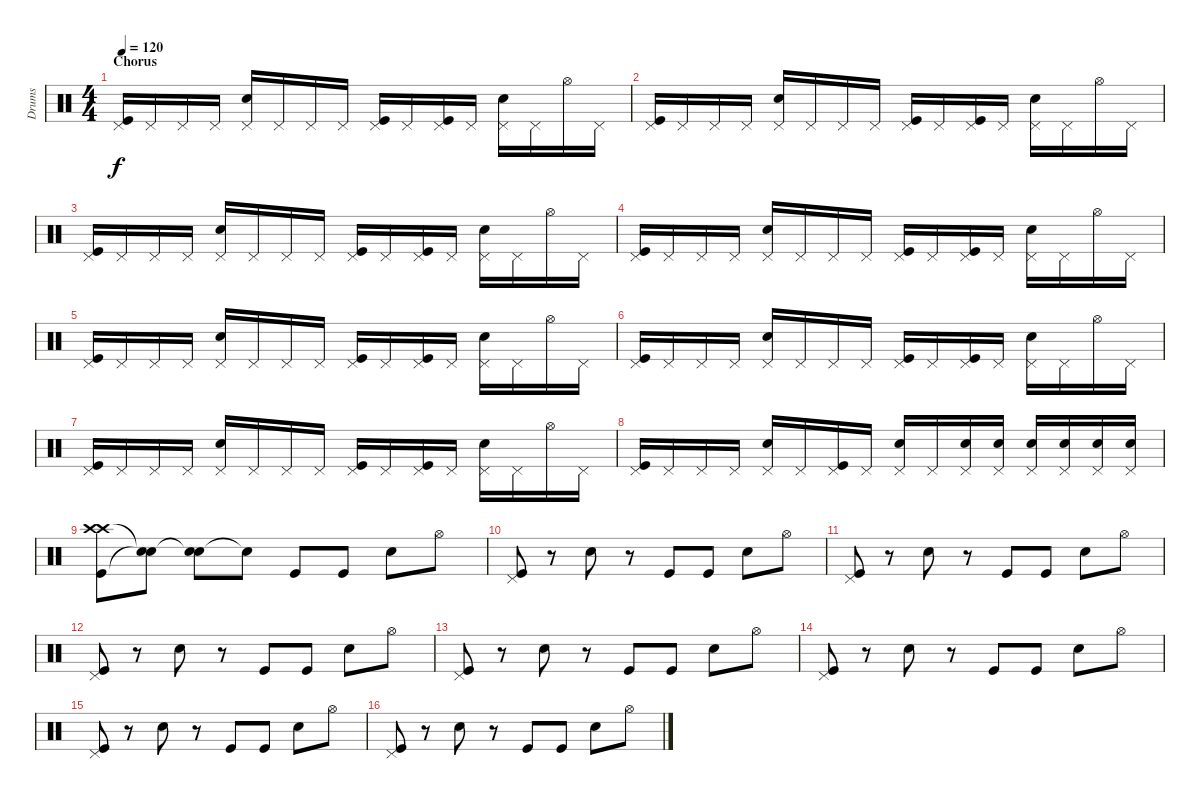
\track ("Drums" "Drums") {instrument percussion}
\staff {score}
\articulation defaults
\ts (4 4)
\section ("" "Chorus")
\tempo 120
\clef neutral
\ks c
("Kick (hit)" "Pedal Hi-Hat (hit)").16{dy f} "Pedal Hi-Hat (hit)".16 "Pedal Hi-Hat (hit)".16 "Pedal Hi-Hat (hit)".16 ("Snare (hit) 2" "Pedal Hi-Hat (hit)").16 "Pedal Hi-Hat (hit)".16 "Pedal Hi-Hat (hit)".16 "Pedal Hi-Hat (hit)".16 ("Kick (hit)" "Pedal Hi-Hat (hit)").16 "Pedal Hi-Hat (hit)".16 ("Kick (hit)" "Pedal Hi-Hat (hit)").16 "Pedal Hi-Hat (hit)".16 ("Snare (hit) 2" "Pedal Hi-Hat (hit)").16 "Pedal Hi-Hat (hit)".16 "Hi-Hat (open)".16 "Pedal Hi-Hat (hit)".16 |
("Kick (hit)" "Pedal Hi-Hat (hit)").16 "Pedal Hi-Hat (hit)".16 "Pedal Hi-Hat (hit)".16 "Pedal Hi-Hat (hit)".16 ("Snare (hit) 2" "Pedal Hi-Hat (hit)").16 "Pedal Hi-Hat (hit)".16 "Pedal Hi-Hat (hit)".16 "Pedal Hi-Hat (hit)".16 ("Kick (hit)" "Pedal Hi-Hat (hit)").16 "Pedal Hi-Hat (hit)".16 ("Kick (hit)" "Pedal Hi-Hat (hit)").16 "Pedal Hi-Hat (hit)".16 ("Snare (hit) 2" "Pedal Hi-Hat (hit)").16 "Pedal Hi-Hat (hit)".16 "Hi-Hat (open)".16 "Pedal Hi-Hat (hit)".16 |
("Kick (hit)" "Pedal Hi-Hat (hit)").16 "Pedal Hi-Hat (hit)".16 "Pedal Hi-Hat (hit)".16 "Pedal Hi-Hat (hit)".16 ("Snare (hit) 2" "Pedal Hi-Hat (hit)").16 "Pedal Hi-Hat (hit)".16 "Pedal Hi-Hat (hit)".16 "Pedal Hi-Hat (hit)".16 ("Kick (hit)" "Pedal Hi-Hat (hit)").16 "Pedal Hi-Hat (hit)".16 ("Kick (hit)" "Pedal Hi-Hat (hit)").16 "Pedal Hi-Hat (hit)".16 ("Snare (hit) 2" "Pedal Hi-Hat (hit)").16 "Pedal Hi-Hat (hit)".16 "Hi-Hat (open)".16 "Pedal Hi-Hat (hit)".16 |
("Kick (hit)" "Pedal Hi-Hat (hit)").16 "Pedal Hi-Hat (hit)".16 "Pedal Hi-Hat (hit)".16 "Pedal Hi-Hat (hit)".16 ("Snare (hit) 2" "Pedal Hi-Hat (hit)").16 "Pedal Hi-Hat (hit)".16 "Pedal Hi-Hat (hit)".16 "Pedal Hi-Hat (hit)".16 ("Kick (hit)" "Pedal Hi-Hat (hit)").16 "Pedal Hi-Hat (hit)".16 ("Kick (hit)" "Pedal Hi-Hat (hit)").16 "Pedal Hi-Hat (hit)".16 ("Snare (hit) 2" "Pedal Hi-Hat (hit)").16 "Pedal Hi-Hat (hit)".16 "Hi-Hat (open)".16 "Pedal Hi-Hat (hit)".16 |
("Kick (hit)" "Pedal Hi-Hat (hit)").16 "Pedal Hi-Hat (hit)".16 "Pedal Hi-Hat (hit)".16 "Pedal Hi-Hat (hit)".16 ("Snare (hit) 2" "Pedal Hi-Hat (hit)").16 "Pedal Hi-Hat (hit)".16 "Pedal Hi-Hat (hit)".16 "Pedal Hi-Hat (hit)".16 ("Kick (hit)" "Pedal Hi-Hat (hit)").16 "Pedal Hi-Hat (hit)".16 ("Kick (hit)" "Pedal Hi-Hat (hit)").16 "Pedal Hi-Hat (hit)".16 ("Snare (hit) 2" "Pedal Hi-Hat (hit)").16 "Pedal Hi-Hat (hit)".16 "Hi-Hat (open)".16 "Pedal Hi-Hat (hit)".16 |
("Kick (hit)" "Pedal Hi-Hat (hit)").16 "Pedal Hi-Hat (hit)".16 "Pedal Hi-Hat (hit)".16 "Pedal Hi-Hat (hit)".16 ("Snare (hit) 2" "Pedal Hi-Hat (hit)").16 "Pedal Hi-Hat (hit)".16 "Pedal Hi-Hat (hit)".16 "Pedal Hi-Hat (hit)".16 ("Kick (hit)" "Pedal Hi-Hat (hit)").16 "Pedal Hi-Hat (hit)".16 ("Kick (hit)" "Pedal Hi-Hat (hit)").16 "Pedal Hi-Hat (hit)".16 ("Snare (hit) 2" "Pedal Hi-Hat (hit)").16 "Pedal Hi-Hat (hit)".16 "Hi-Hat (open)".16 "Pedal Hi-Hat (hit)".16 |
("Kick (hit)" "Pedal Hi-Hat (hit)").16 "Pedal Hi-Hat (hit)".16 "Pedal Hi-Hat (hit)".16 "Pedal Hi-Hat (hit)".16 ("Snare (hit) 2" "Pedal Hi-Hat (hit)").16 "Pedal Hi-Hat (hit)".16 "Pedal Hi-Hat (hit)".16 "Pedal Hi-Hat (hit)".16 ("Kick (hit)" "Pedal Hi-Hat (hit)").16 "Pedal Hi-Hat (hit)".16 ("Kick (hit)" "Pedal Hi-Hat (hit)").16 "Pedal Hi-Hat (hit)".16 ("Snare (hit) 2" "Pedal Hi-Hat (hit)").16 "Pedal Hi-Hat (hit)".16 "Hi-Hat (open)".16 "Pedal Hi-Hat (hit)".16 |
("Kick (hit)" "Pedal Hi-Hat (hit)").16 "Pedal Hi-Hat (hit)".16 "Pedal Hi-Hat (hit)".16 "Pedal Hi-Hat (hit)".16 ("Snare (hit) 2" "Pedal Hi-Hat (hit)").16 "Pedal Hi-Hat (hit)".16 ("Kick (hit)" "Pedal Hi-Hat (hit)").16 "Pedal Hi-Hat (hit)".16 ("Snare (hit) 2" "Pedal Hi-Hat (hit)").16 "Pedal Hi-Hat (hit)".16 ("Snare (hit) 2" "Pedal Hi-Hat (hit)").16 ("Snare (hit) 2" "Pedal Hi-Hat (hit)").16 ("Snare (hit) 2" "Pedal Hi-Hat (hit)").16 ("Snare (hit) 2" "Pedal Hi-Hat (hit)").16 ("Snare (hit) 2" "Pedal Hi-Hat (hit)").16 ("Snare (hit) 2" "Pedal Hi-Hat (hit)").16 |
("Kick (hit)" "Crash high (hit)" "Crash high (hit)").8 ("Snare (hit)"{t} "Snare (hit)"{t}).8 ("Snare (hit) 2" "Snare (hit)"{t}).8 "Snare (hit)"{t}.8 "Kick (hit)".8 "Kick (hit)".8 "Snare (hit) 2".8 "Hi-Hat (open)".8 |
("Kick (hit)" "Pedal Hi-Hat (hit)").8 r.8 "Snare (hit) 2".8 r.8 "Kick (hit)".8 "Kick (hit)".8 "Snare (hit) 2".8 "Hi-Hat (open)".8 |
("Kick (hit)" "Pedal Hi-Hat (hit)").8 r.8 "Snare (hit) 2".8 r.8 "Kick (hit)".8 "Kick (hit)".8 "Snare (hit) 2".8 "Hi-Hat (open)".8 |
("Kick (hit)" "Pedal Hi-Hat (hit)").8 r.8 "Snare (hit) 2".8 r.8 "Kick (hit)".8 "Kick (hit)".8 "Snare (hit) 2".8 "Hi-Hat (open)".8 |
("Kick (hit)" "Pedal Hi-Hat (hit)").8 r.8 "Snare (hit) 2".8 r.8 "Kick (hit)".8 "Kick (hit)".8 "Snare (hit) 2".8 "Hi-Hat (open)".8 |
("Kick (hit)" "Pedal Hi-Hat (hit)").8 r.8 "Snare (hit) 2".8 r.8 "Kick (hit)".8 "Kick (hit)".8 "Snare (hit) 2".8 "Hi-Hat (open)".8 |
("Kick (hit)" "Pedal Hi-Hat (hit)").8 r.8 "Snare (hit) 2".8 r.8 "Kick (hit)".8 "Kick (hit)".8 "Snare (hit) 2".8 "Hi-Hat (open)".8 |
("Kick (hit)" "Pedal Hi-Hat (hit)").8 r.8 "Snare (hit) 2".8 r.8 "Kick (hit)".8 "Kick (hit)".8 "Snare (hit) 2".8 "Hi-Hat (open)".8
